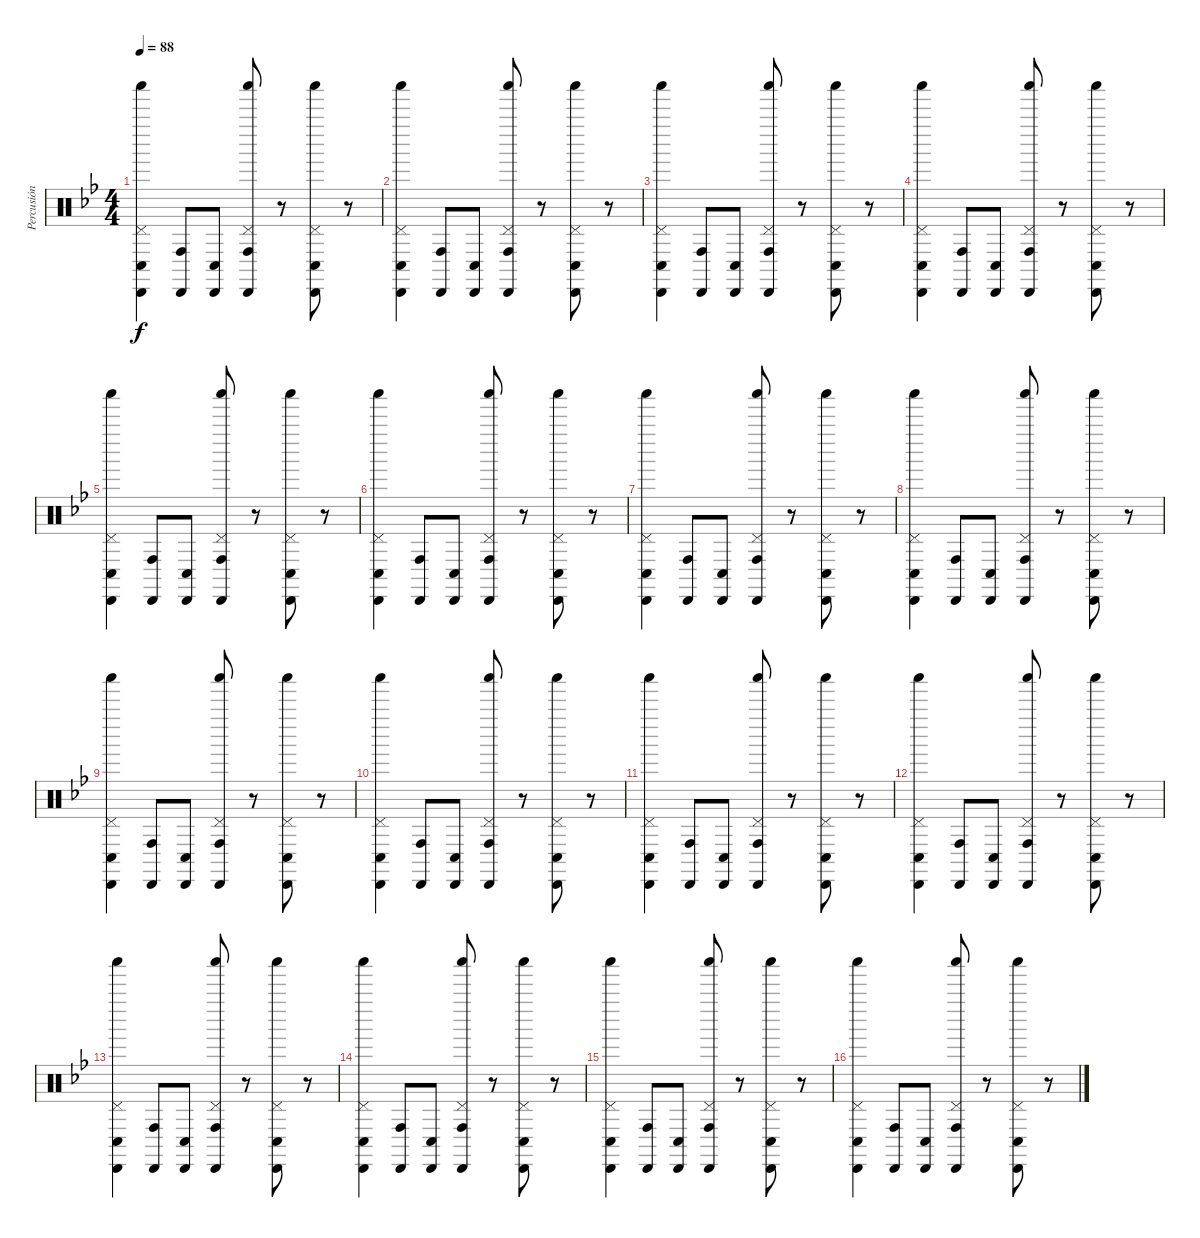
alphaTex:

\track ("Percusión" "Percusión") {instrument percussion}
\staff {score}
\articulation defaults
\ts (4 4)
\tempo 88
\clef neutral
\ks bb
("Cabasa (hit)" "Conga low (hit)" "Pedal Hi-Hat (hit)" "Shaker (hit)").4{dy f} ("Cabasa (hit)" "Conga high (hit)").8 ("Cabasa (hit)" "Conga low (hit)").8 ("Cabasa (hit)" "Conga high (hit)" "Pedal Hi-Hat (hit)" "Shaker (hit)").8 r.8 ("Cabasa (hit)" "Conga low (hit)" "Pedal Hi-Hat (hit)" "Shaker (hit)").8 r.8 |
("Cabasa (hit)" "Conga low (hit)" "Pedal Hi-Hat (hit)" "Shaker (hit)").4 ("Cabasa (hit)" "Conga high (hit)").8 ("Cabasa (hit)" "Conga low (hit)").8 ("Cabasa (hit)" "Conga high (hit)" "Pedal Hi-Hat (hit)" "Shaker (hit)").8 r.8 ("Cabasa (hit)" "Conga low (hit)" "Pedal Hi-Hat (hit)" "Shaker (hit)").8 r.8 |
("Cabasa (hit)" "Conga low (hit)" "Pedal Hi-Hat (hit)" "Shaker (hit)").4 ("Cabasa (hit)" "Conga high (hit)").8 ("Cabasa (hit)" "Conga low (hit)").8 ("Cabasa (hit)" "Conga high (hit)" "Pedal Hi-Hat (hit)" "Shaker (hit)").8 r.8 ("Cabasa (hit)" "Conga low (hit)" "Pedal Hi-Hat (hit)" "Shaker (hit)").8 r.8 |
("Cabasa (hit)" "Conga low (hit)" "Pedal Hi-Hat (hit)" "Shaker (hit)").4 ("Cabasa (hit)" "Conga high (hit)").8 ("Cabasa (hit)" "Conga low (hit)").8 ("Cabasa (hit)" "Conga high (hit)" "Pedal Hi-Hat (hit)" "Shaker (hit)").8 r.8 ("Cabasa (hit)" "Conga low (hit)" "Pedal Hi-Hat (hit)" "Shaker (hit)").8 r.8 |
("Cabasa (hit)" "Conga low (hit)" "Pedal Hi-Hat (hit)" "Shaker (hit)").4 ("Cabasa (hit)" "Conga high (hit)").8 ("Cabasa (hit)" "Conga low (hit)").8 ("Cabasa (hit)" "Conga high (hit)" "Pedal Hi-Hat (hit)" "Shaker (hit)").8 r.8 ("Cabasa (hit)" "Conga low (hit)" "Pedal Hi-Hat (hit)" "Shaker (hit)").8 r.8 |
("Cabasa (hit)" "Conga low (hit)" "Pedal Hi-Hat (hit)" "Shaker (hit)").4 ("Cabasa (hit)" "Conga high (hit)").8 ("Cabasa (hit)" "Conga low (hit)").8 ("Cabasa (hit)" "Conga high (hit)" "Pedal Hi-Hat (hit)" "Shaker (hit)").8 r.8 ("Cabasa (hit)" "Conga low (hit)" "Pedal Hi-Hat (hit)" "Shaker (hit)").8 r.8 |
("Cabasa (hit)" "Conga low (hit)" "Pedal Hi-Hat (hit)" "Shaker (hit)").4 ("Cabasa (hit)" "Conga high (hit)").8 ("Cabasa (hit)" "Conga low (hit)").8 ("Cabasa (hit)" "Conga high (hit)" "Pedal Hi-Hat (hit)" "Shaker (hit)").8 r.8 ("Cabasa (hit)" "Conga low (hit)" "Pedal Hi-Hat (hit)" "Shaker (hit)").8 r.8 |
("Cabasa (hit)" "Conga low (hit)" "Pedal Hi-Hat (hit)" "Shaker (hit)").4 ("Cabasa (hit)" "Conga high (hit)").8 ("Cabasa (hit)" "Conga low (hit)").8 ("Cabasa (hit)" "Conga high (hit)" "Pedal Hi-Hat (hit)" "Shaker (hit)").8 r.8 ("Cabasa (hit)" "Conga low (hit)" "Pedal Hi-Hat (hit)" "Shaker (hit)").8 r.8 |
("Cabasa (hit)" "Conga low (hit)" "Pedal Hi-Hat (hit)" "Shaker (hit)").4 ("Cabasa (hit)" "Conga high (hit)").8 ("Cabasa (hit)" "Conga low (hit)").8 ("Cabasa (hit)" "Conga high (hit)" "Pedal Hi-Hat (hit)" "Shaker (hit)").8 r.8 ("Cabasa (hit)" "Conga low (hit)" "Pedal Hi-Hat (hit)" "Shaker (hit)").8 r.8 |
("Cabasa (hit)" "Conga low (hit)" "Pedal Hi-Hat (hit)" "Shaker (hit)").4 ("Cabasa (hit)" "Conga high (hit)").8 ("Cabasa (hit)" "Conga low (hit)").8 ("Cabasa (hit)" "Conga high (hit)" "Pedal Hi-Hat (hit)" "Shaker (hit)").8 r.8 ("Cabasa (hit)" "Conga low (hit)" "Pedal Hi-Hat (hit)" "Shaker (hit)").8 r.8 |
("Cabasa (hit)" "Conga low (hit)" "Pedal Hi-Hat (hit)" "Shaker (hit)").4 ("Cabasa (hit)" "Conga high (hit)").8 ("Cabasa (hit)" "Conga low (hit)").8 ("Cabasa (hit)" "Conga high (hit)" "Pedal Hi-Hat (hit)" "Shaker (hit)").8 r.8 ("Cabasa (hit)" "Conga low (hit)" "Pedal Hi-Hat (hit)" "Shaker (hit)").8 r.8 |
("Cabasa (hit)" "Conga low (hit)" "Pedal Hi-Hat (hit)" "Shaker (hit)").4 ("Cabasa (hit)" "Conga high (hit)").8 ("Cabasa (hit)" "Conga low (hit)").8 ("Cabasa (hit)" "Conga high (hit)" "Pedal Hi-Hat (hit)" "Shaker (hit)").8 r.8 ("Cabasa (hit)" "Conga low (hit)" "Pedal Hi-Hat (hit)" "Shaker (hit)").8 r.8 |
("Cabasa (hit)" "Conga low (hit)" "Pedal Hi-Hat (hit)" "Shaker (hit)").4 ("Cabasa (hit)" "Conga high (hit)").8 ("Cabasa (hit)" "Conga low (hit)").8 ("Cabasa (hit)" "Conga high (hit)" "Pedal Hi-Hat (hit)" "Shaker (hit)").8 r.8 ("Cabasa (hit)" "Conga low (hit)" "Pedal Hi-Hat (hit)" "Shaker (hit)").8 r.8 |
("Cabasa (hit)" "Conga low (hit)" "Pedal Hi-Hat (hit)" "Shaker (hit)").4 ("Cabasa (hit)" "Conga high (hit)").8 ("Cabasa (hit)" "Conga low (hit)").8 ("Cabasa (hit)" "Conga high (hit)" "Pedal Hi-Hat (hit)" "Shaker (hit)").8 r.8 ("Cabasa (hit)" "Conga low (hit)" "Pedal Hi-Hat (hit)" "Shaker (hit)").8 r.8 |
("Cabasa (hit)" "Conga low (hit)" "Pedal Hi-Hat (hit)" "Shaker (hit)").4 ("Cabasa (hit)" "Conga high (hit)").8 ("Cabasa (hit)" "Conga low (hit)").8 ("Cabasa (hit)" "Conga high (hit)" "Pedal Hi-Hat (hit)" "Shaker (hit)").8 r.8 ("Cabasa (hit)" "Conga low (hit)" "Pedal Hi-Hat (hit)" "Shaker (hit)").8 r.8 |
("Cabasa (hit)" "Conga low (hit)" "Pedal Hi-Hat (hit)" "Shaker (hit)").4 ("Cabasa (hit)" "Conga high (hit)").8 ("Cabasa (hit)" "Conga low (hit)").8 ("Cabasa (hit)" "Conga high (hit)" "Pedal Hi-Hat (hit)" "Shaker (hit)").8 r.8 ("Cabasa (hit)" "Conga low (hit)" "Pedal Hi-Hat (hit)" "Shaker (hit)").8 r.8
